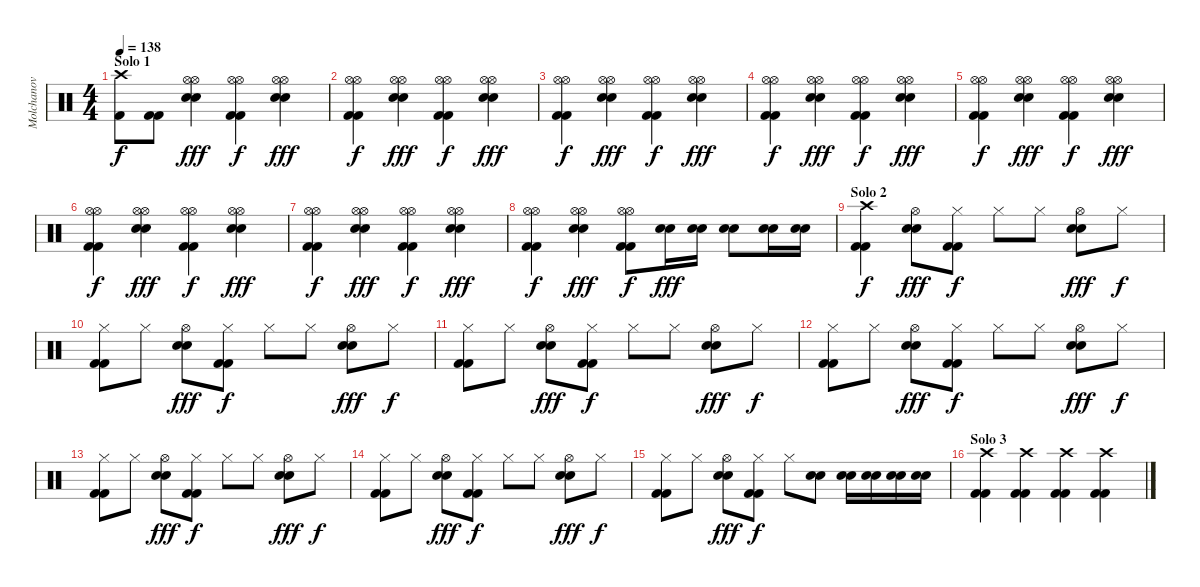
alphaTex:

\track ("Molchanov" "Molchanov") {instrument percussion}
\staff {score}
\articulation defaults
\ts (4 4)
\section ("" "Solo 1")
\tempo 138
\clef neutral
\ks c
("Crash high (hit)"{t} "Kick (hit) 2"{t}).8{dy f} ("Kick (hit) 2" "Kick (hit) 2").8 ("Hi-Hat (open)" "Hi-Hat (open)" "Electric Snare (hit)" "Electric Snare (hit)").4{dy fff} ("Hi-Hat (open)" "Hi-Hat (open)" "Kick (hit) 2" "Kick (hit) 2").4{dy f} ("Hi-Hat (open)" "Hi-Hat (open)" "Electric Snare (hit)" "Electric Snare (hit)").4{dy fff} |
("Hi-Hat (open)" "Hi-Hat (open)" "Kick (hit) 2" "Kick (hit) 2").4{dy f} ("Hi-Hat (open)" "Hi-Hat (open)" "Electric Snare (hit)" "Electric Snare (hit)").4{dy fff} ("Hi-Hat (open)" "Hi-Hat (open)" "Kick (hit) 2" "Kick (hit) 2").4{dy f} ("Hi-Hat (open)" "Hi-Hat (open)" "Electric Snare (hit)" "Electric Snare (hit)").4{dy fff} |
("Hi-Hat (open)" "Hi-Hat (open)" "Kick (hit) 2" "Kick (hit) 2").4{dy f} ("Hi-Hat (open)" "Hi-Hat (open)" "Electric Snare (hit)" "Electric Snare (hit)").4{dy fff} ("Hi-Hat (open)" "Hi-Hat (open)" "Kick (hit) 2" "Kick (hit) 2").4{dy f} ("Hi-Hat (open)" "Hi-Hat (open)" "Electric Snare (hit)" "Electric Snare (hit)").4{dy fff} |
("Hi-Hat (open)" "Hi-Hat (open)" "Kick (hit) 2" "Kick (hit) 2").4{dy f} ("Hi-Hat (open)" "Hi-Hat (open)" "Electric Snare (hit)" "Electric Snare (hit)").4{dy fff} ("Hi-Hat (open)" "Hi-Hat (open)" "Kick (hit) 2" "Kick (hit) 2").4{dy f} ("Hi-Hat (open)" "Hi-Hat (open)" "Electric Snare (hit)" "Electric Snare (hit)").4{dy fff} |
("Hi-Hat (open)" "Hi-Hat (open)" "Kick (hit) 2" "Kick (hit) 2").4{dy f} ("Hi-Hat (open)" "Hi-Hat (open)" "Electric Snare (hit)" "Electric Snare (hit)").4{dy fff} ("Hi-Hat (open)" "Hi-Hat (open)" "Kick (hit) 2" "Kick (hit) 2").4{dy f} ("Hi-Hat (open)" "Hi-Hat (open)" "Electric Snare (hit)" "Electric Snare (hit)").4{dy fff} |
("Hi-Hat (open)" "Hi-Hat (open)" "Kick (hit) 2" "Kick (hit) 2").4{dy f} ("Hi-Hat (open)" "Hi-Hat (open)" "Electric Snare (hit)" "Electric Snare (hit)").4{dy fff} ("Hi-Hat (open)" "Hi-Hat (open)" "Kick (hit) 2" "Kick (hit) 2").4{dy f} ("Hi-Hat (open)" "Hi-Hat (open)" "Electric Snare (hit)" "Electric Snare (hit)").4{dy fff} |
("Hi-Hat (open)" "Hi-Hat (open)" "Kick (hit) 2" "Kick (hit) 2").4{dy f} ("Hi-Hat (open)" "Hi-Hat (open)" "Electric Snare (hit)" "Electric Snare (hit)").4{dy fff} ("Hi-Hat (open)" "Hi-Hat (open)" "Kick (hit) 2" "Kick (hit) 2").4{dy f} ("Hi-Hat (open)" "Hi-Hat (open)" "Electric Snare (hit)" "Electric Snare (hit)").4{dy fff} |
("Hi-Hat (open)" "Hi-Hat (open)" "Kick (hit) 2" "Kick (hit) 2").4{dy f} ("Hi-Hat (open)" "Hi-Hat (open)" "Electric Snare (hit)" "Electric Snare (hit)").4{dy fff} ("Hi-Hat (open)" "Hi-Hat (open)" "Kick (hit) 2" "Kick (hit) 2").8{dy f} ("Electric Snare (hit)" "Electric Snare (hit)").16{dy fff} ("Electric Snare (hit)" "Electric Snare (hit)").16 ("Electric Snare (hit)" "Electric Snare (hit)").8 ("Electric Snare (hit)" "Electric Snare (hit)").16 ("Electric Snare (hit)" "Electric Snare (hit)").16 |
\section ("" "Solo 2")
("Crash high (hit)" "Kick (hit) 2" "Kick (hit) 2").4{dy f} ("Hi-Hat (open)" "Electric Snare (hit)" "Electric Snare (hit)").8{dy fff} ("Hi-Hat (closed)" "Kick (hit) 2" "Kick (hit) 2").8{dy f} "Hi-Hat (closed)".8 "Hi-Hat (closed)".8 ("Hi-Hat (open)" "Electric Snare (hit)" "Electric Snare (hit)").8{dy fff} "Hi-Hat (closed)".8{dy f} |
("Hi-Hat (closed)" "Kick (hit) 2" "Kick (hit) 2").8 "Hi-Hat (closed)".8 ("Hi-Hat (open)" "Electric Snare (hit)" "Electric Snare (hit)").8{dy fff} ("Hi-Hat (closed)" "Kick (hit) 2" "Kick (hit) 2").8{dy f} "Hi-Hat (closed)".8 "Hi-Hat (closed)".8 ("Hi-Hat (open)" "Electric Snare (hit)" "Electric Snare (hit)").8{dy fff} "Hi-Hat (closed)".8{dy f} |
("Hi-Hat (closed)" "Kick (hit) 2" "Kick (hit) 2").8 "Hi-Hat (closed)".8 ("Hi-Hat (open)" "Electric Snare (hit)" "Electric Snare (hit)").8{dy fff} ("Hi-Hat (closed)" "Kick (hit) 2" "Kick (hit) 2").8{dy f} "Hi-Hat (closed)".8 "Hi-Hat (closed)".8 ("Hi-Hat (open)" "Electric Snare (hit)" "Electric Snare (hit)").8{dy fff} "Hi-Hat (closed)".8{dy f} |
("Hi-Hat (closed)" "Kick (hit) 2" "Kick (hit) 2").8 "Hi-Hat (closed)".8 ("Hi-Hat (open)" "Electric Snare (hit)" "Electric Snare (hit)").8{dy fff} ("Hi-Hat (closed)" "Kick (hit) 2" "Kick (hit) 2").8{dy f} "Hi-Hat (closed)".8 "Hi-Hat (closed)".8 ("Hi-Hat (open)" "Electric Snare (hit)" "Electric Snare (hit)").8{dy fff} "Hi-Hat (closed)".8{dy f} |
("Hi-Hat (closed)" "Kick (hit) 2" "Kick (hit) 2").8 "Hi-Hat (closed)".8 ("Hi-Hat (open)" "Electric Snare (hit)" "Electric Snare (hit)").8{dy fff} ("Hi-Hat (closed)" "Kick (hit) 2" "Kick (hit) 2").8{dy f} "Hi-Hat (closed)".8 "Hi-Hat (closed)".8 ("Hi-Hat (open)" "Electric Snare (hit)" "Electric Snare (hit)").8{dy fff} "Hi-Hat (closed)".8{dy f} |
("Hi-Hat (closed)" "Kick (hit) 2" "Kick (hit) 2").8 "Hi-Hat (closed)".8 ("Hi-Hat (open)" "Electric Snare (hit)" "Electric Snare (hit)").8{dy fff} ("Hi-Hat (closed)" "Kick (hit) 2" "Kick (hit) 2").8{dy f} "Hi-Hat (closed)".8 "Hi-Hat (closed)".8 ("Hi-Hat (open)" "Electric Snare (hit)" "Electric Snare (hit)").8{dy fff} "Hi-Hat (closed)".8{dy f} |
("Hi-Hat (closed)" "Kick (hit) 2" "Kick (hit) 2").8 "Hi-Hat (closed)".8 ("Hi-Hat (open)" "Electric Snare (hit)" "Electric Snare (hit)").8{dy fff} ("Hi-Hat (closed)" "Kick (hit) 2" "Kick (hit) 2").8{dy f} "Hi-Hat (closed)".8 ("Electric Snare (hit)" "Electric Snare (hit)").8 ("Electric Snare (hit)" "Electric Snare (hit)").16 ("Electric Snare (hit)" "Electric Snare (hit)").16 ("Electric Snare (hit)" "Electric Snare (hit)").16 ("Electric Snare (hit)" "Electric Snare (hit)").16 |
\section ("" "Solo 3")
("Crash high (hit)" "Kick (hit) 2" "Kick (hit) 2").4 ("Crash high (hit)" "Kick (hit) 2" "Kick (hit) 2").4 ("Crash high (hit)" "Kick (hit) 2" "Kick (hit) 2").4 ("Crash high (hit)" "Kick (hit) 2" "Kick (hit) 2").4
